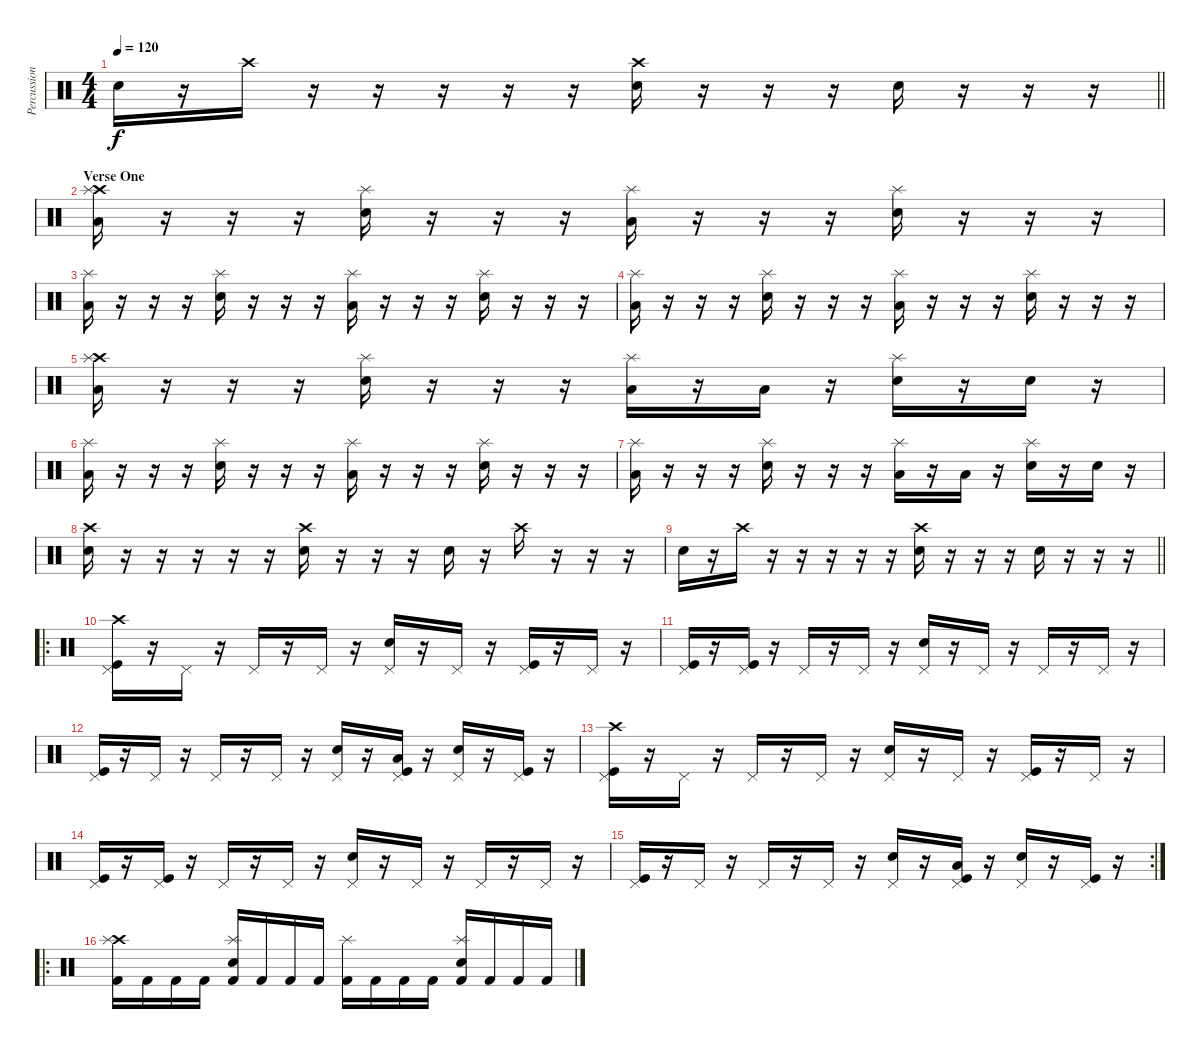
\track ("Percussion" "Percussion") {instrument percussion}
\staff {score}
\articulation defaults
\ts (4 4)
\tempo 120
\clef neutral
\barLineRight lightlight
\ks c "Electric Snare (hit)".16{dy f}
r.16 "Crash high (hit)".16 r.16 r.16 r.16 r.16 r.16 ("Crash high (hit)" "Electric Snare (hit)").16 r.16 r.16 r.16 "Electric Snare (hit)".16 r.16 r.16 r.16 |
\section ("" "Verse One")
("Crash high (hit)" "Splash (hit)" "Low Tom (hit)").16 r.16 r.16 r.16 ("Splash (hit)" "Electric Snare (hit)").16 r.16 r.16 r.16 ("Splash (hit)" "Low Tom (hit)").16 r.16 r.16 r.16 ("Splash (hit)" "Electric Snare (hit)").16 r.16 r.16 r.16 |
("Splash (hit)" "Low Tom (hit)").16 r.16 r.16 r.16 ("Splash (hit)" "Electric Snare (hit)").16 r.16 r.16 r.16 ("Splash (hit)" "Low Tom (hit)").16 r.16 r.16 r.16 ("Splash (hit)" "Electric Snare (hit)").16 r.16 r.16 r.16 |
("Splash (hit)" "Low Tom (hit)").16 r.16 r.16 r.16 ("Splash (hit)" "Electric Snare (hit)").16 r.16 r.16 r.16 ("Splash (hit)" "Low Tom (hit)").16 r.16 r.16 r.16 ("Splash (hit)" "Electric Snare (hit)").16 r.16 r.16 r.16 |
("Crash high (hit)" "Splash (hit)" "Low Tom (hit)").16 r.16 r.16 r.16 ("Splash (hit)" "Electric Snare (hit)").16 r.16 r.16 r.16 ("Splash (hit)" "Low Tom (hit)").16 r.16 "Low Tom (hit)".16 r.16 ("Splash (hit)" "Electric Snare (hit)").16 r.16 "Electric Snare (hit)".16 r.16 |
("Splash (hit)" "Low Tom (hit)").16 r.16 r.16 r.16 ("Splash (hit)" "Electric Snare (hit)").16 r.16 r.16 r.16 ("Splash (hit)" "Low Tom (hit)").16 r.16 r.16 r.16 ("Splash (hit)" "Electric Snare (hit)").16 r.16 r.16 r.16 |
("Splash (hit)" "Low Tom (hit)").16 r.16 r.16 r.16 ("Splash (hit)" "Electric Snare (hit)").16 r.16 r.16 r.16 ("Splash (hit)" "Low Tom (hit)").16 r.16 "Low Tom (hit)".16 r.16 ("Splash (hit)" "Electric Snare (hit)").16 r.16 "Electric Snare (hit)".16 r.16 |
("Crash high (hit)" "Electric Snare (hit)").16 r.16 r.16 r.16 r.16 r.16 ("Crash high (hit)" "Electric Snare (hit)").16 r.16 r.16 r.16 "Electric Snare (hit)".16 r.16 "Crash high (hit)".16 r.16 r.16 r.16 |
\barLineRight lightlight "Electric Snare (hit)".16
r.16 "Crash high (hit)".16 r.16 r.16 r.16 r.16 r.16 ("Crash high (hit)" "Electric Snare (hit)").16 r.16 r.16 r.16 "Electric Snare (hit)".16 r.16 r.16 r.16 |
\ro
("Crash high (hit)" "Pedal Hi-Hat (hit)" "Kick (hit)").16 r.16 "Pedal Hi-Hat (hit)".16 r.16 "Pedal Hi-Hat (hit)".16 r.16 "Pedal Hi-Hat (hit)".16 r.16 ("Pedal Hi-Hat (hit)" "Electric Snare (hit)").16 r.16 "Pedal Hi-Hat (hit)".16 r.16 ("Pedal Hi-Hat (hit)" "Kick (hit)").16 r.16 "Pedal Hi-Hat (hit)".16 r.16 |
("Pedal Hi-Hat (hit)" "Kick (hit)").16 r.16 ("Pedal Hi-Hat (hit)" "Kick (hit)").16 r.16 "Pedal Hi-Hat (hit)".16 r.16 "Pedal Hi-Hat (hit)".16 r.16 ("Pedal Hi-Hat (hit)" "Electric Snare (hit)").16 r.16 "Pedal Hi-Hat (hit)".16 r.16 "Pedal Hi-Hat (hit)".16 r.16 "Pedal Hi-Hat (hit)".16 r.16 |
("Pedal Hi-Hat (hit)" "Kick (hit)").16 r.16 "Pedal Hi-Hat (hit)".16 r.16 "Pedal Hi-Hat (hit)".16 r.16 "Pedal Hi-Hat (hit)".16 r.16 ("Pedal Hi-Hat (hit)" "Electric Snare (hit)").16 r.16 ("Pedal Hi-Hat (hit)" "Low Tom (hit)" "Kick (hit)").16 r.16 ("Pedal Hi-Hat (hit)" "Electric Snare (hit)").16 r.16 ("Pedal Hi-Hat (hit)" "Kick (hit)").16 r.16 |
("Crash high (hit)" "Pedal Hi-Hat (hit)" "Kick (hit)").16 r.16 "Pedal Hi-Hat (hit)".16 r.16 "Pedal Hi-Hat (hit)".16 r.16 "Pedal Hi-Hat (hit)".16 r.16 ("Pedal Hi-Hat (hit)" "Electric Snare (hit)").16 r.16 "Pedal Hi-Hat (hit)".16 r.16 ("Pedal Hi-Hat (hit)" "Kick (hit)").16 r.16 "Pedal Hi-Hat (hit)".16 r.16 |
("Pedal Hi-Hat (hit)" "Kick (hit)").16 r.16 ("Pedal Hi-Hat (hit)" "Kick (hit)").16 r.16 "Pedal Hi-Hat (hit)".16 r.16 "Pedal Hi-Hat (hit)".16 r.16 ("Pedal Hi-Hat (hit)" "Electric Snare (hit)").16 r.16 "Pedal Hi-Hat (hit)".16 r.16 "Pedal Hi-Hat (hit)".16 r.16 "Pedal Hi-Hat (hit)".16 r.16 |
\rc 2
("Pedal Hi-Hat (hit)" "Kick (hit)").16 r.16 "Pedal Hi-Hat (hit)".16 r.16 "Pedal Hi-Hat (hit)".16 r.16 "Pedal Hi-Hat (hit)".16 r.16 ("Pedal Hi-Hat (hit)" "Electric Snare (hit)").16 r.16 ("Pedal Hi-Hat (hit)" "Low Tom (hit)" "Kick (hit)").16 r.16 ("Pedal Hi-Hat (hit)" "Electric Snare (hit)").16 r.16 ("Pedal Hi-Hat (hit)" "Kick (hit)").16 r.16 |
\ro
("Crash high (hit)" "Splash (hit)" "Kick (hit) 2").16 "Kick (hit) 2".16 "Kick (hit) 2".16 "Kick (hit) 2".16 ("Splash (hit)" "Electric Snare (hit)" "Kick (hit) 2").16 "Kick (hit) 2".16 "Kick (hit) 2".16 "Kick (hit) 2".16 ("Splash (hit)" "Kick (hit) 2").16 "Kick (hit) 2".16 "Kick (hit) 2".16 "Kick (hit) 2".16 ("Splash (hit)" "Electric Snare (hit)" "Kick (hit) 2").16 "Kick (hit) 2".16 "Kick (hit) 2".16 "Kick (hit) 2".16
